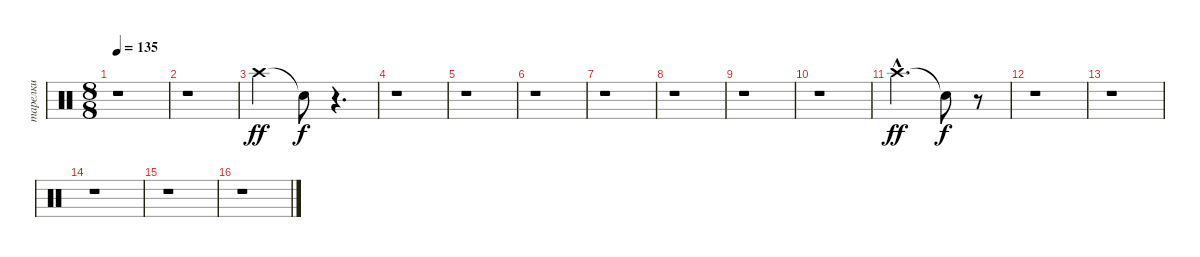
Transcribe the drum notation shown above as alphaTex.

\track ("тарелки" "тарелки") {instrument percussion}
\staff {score}
\articulation defaults
\ts (8 8)
\tempo 135
\clef neutral
\ks c
r.1{dy ff} |
r.1 |
"Crash high (hit)".2 "Snare (hit)"{t}.8{dy f} r.4{d} |
r.1 |
r.1 |
r.1 |
r.1 |
r.1 |
r.1 |
r.1 |
"Crash high (hit)"{hac}.2{d dy ff} "Snare (hit)"{t}.8{dy f} r.8 |
r.1 |
r.1 |
r.1 |
r.1 |
r.1
